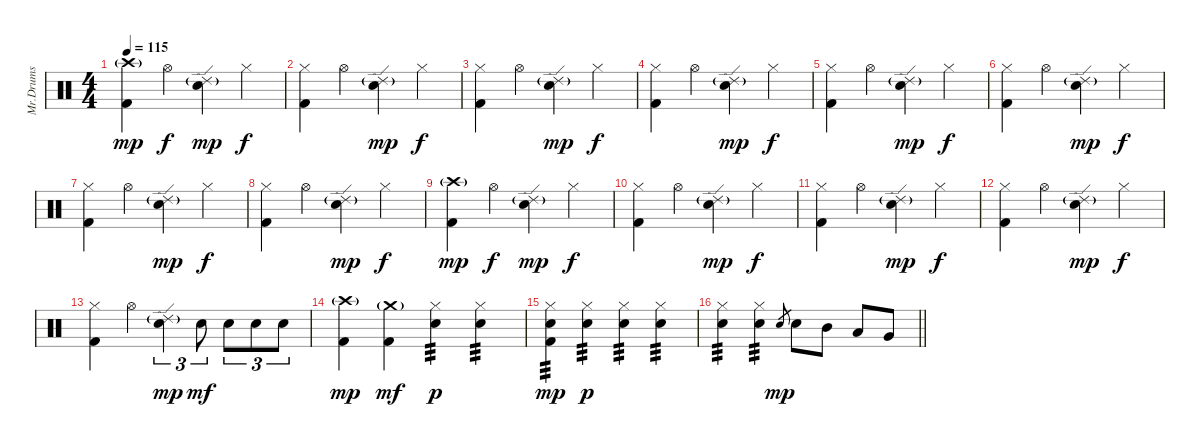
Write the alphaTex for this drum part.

\track ("Mr.Drums" "Mr.Drums") {instrument percussion}
\staff {score}
\articulation defaults
\ts (4 4)
\tempo 115
\clef neutral
\ks c
("Crash high (hit)"{g} "Kick (hit) 2").4{dy mp} "Hi-Hat (open)".4{dy f} ("Ride (edge) 2"{g} "Electric Snare (hit)").4{dy mp} "Hi-Hat (closed)".4{dy f} |
("Hi-Hat (closed)" "Kick (hit) 2").4 "Hi-Hat (open)".4 ("Ride (edge) 2"{g} "Electric Snare (hit)").4{dy mp} "Hi-Hat (closed)".4{dy f} |
("Hi-Hat (closed)" "Kick (hit) 2").4 "Hi-Hat (open)".4 ("Ride (edge) 2"{g} "Electric Snare (hit)").4{dy mp} "Hi-Hat (closed)".4{dy f} |
("Hi-Hat (closed)" "Kick (hit) 2").4 "Hi-Hat (open)".4 ("Ride (edge) 2"{g} "Electric Snare (hit)").4{dy mp} "Hi-Hat (closed)".4{dy f} |
("Hi-Hat (closed)" "Kick (hit) 2").4 "Hi-Hat (open)".4 ("Ride (edge) 2"{g} "Electric Snare (hit)").4{dy mp} "Hi-Hat (closed)".4{dy f} |
("Hi-Hat (closed)" "Kick (hit) 2").4 "Hi-Hat (open)".4 ("Ride (edge) 2"{g} "Electric Snare (hit)").4{dy mp} "Hi-Hat (closed)".4{dy f} |
("Hi-Hat (closed)" "Kick (hit) 2").4 "Hi-Hat (open)".4 ("Ride (edge) 2"{g} "Electric Snare (hit)").4{dy mp} "Hi-Hat (closed)".4{dy f} |
("Hi-Hat (closed)" "Kick (hit) 2").4 "Hi-Hat (open)".4 ("Ride (edge) 2"{g} "Electric Snare (hit)").4{dy mp} "Hi-Hat (closed)".4{dy f} |
("Crash high (hit)"{g} "Kick (hit) 2").4{dy mp} "Hi-Hat (open)".4{dy f} ("Ride (edge) 2"{g} "Electric Snare (hit)").4{dy mp} "Hi-Hat (closed)".4{dy f} |
("Hi-Hat (closed)" "Kick (hit) 2").4 "Hi-Hat (open)".4 ("Ride (edge) 2"{g} "Electric Snare (hit)").4{dy mp} "Hi-Hat (closed)".4{dy f} |
("Hi-Hat (closed)" "Kick (hit) 2").4 "Hi-Hat (open)".4 ("Ride (edge) 2"{g} "Electric Snare (hit)").4{dy mp} "Hi-Hat (closed)".4{dy f} |
("Hi-Hat (closed)" "Kick (hit) 2").4 "Hi-Hat (open)".4 ("Ride (edge) 2"{g} "Electric Snare (hit)").4{dy mp} "Hi-Hat (closed)".4{dy f} |
("Hi-Hat (closed)" "Kick (hit) 2").4 "Hi-Hat (open)".4 ("Ride (edge) 2"{g} "Electric Snare (hit)").4{tu (3 2) dy mp} "Electric Snare (hit)".8{tu (3 2) dy mf} "Electric Snare (hit)".8{tu (3 2)} "Electric Snare (hit)".8{tu (3 2)} "Electric Snare (hit)".8{tu (3 2)} |
("Crash high (hit)"{g} "Kick (hit) 2").4{dy mp} ("Crash medium (hit)"{g} "Kick (hit) 2").4{dy mf} ("Hi-Hat (closed)" "Electric Snare (hit)").4{tp 3 dy p} ("Hi-Hat (closed)" "Electric Snare (hit)").4{tp 3} |
("Hi-Hat (closed)" "Electric Snare (hit)" "Kick (hit) 2").4{tp 3 dy mp} ("Hi-Hat (closed)" "Electric Snare (hit)").4{tp 3 dy p} ("Hi-Hat (closed)" "Electric Snare (hit)").4{tp 3} ("Hi-Hat (closed)" "Electric Snare (hit)").4{tp 3} |
\barLineRight lightlight
("Hi-Hat (closed)" "Electric Snare (hit)").4{tp 3} ("Hi-Hat (closed)" "Electric Snare (hit)").4{tp 3} "Electric Snare (hit)".8{gr dy mp} "Electric Snare (hit)".8 "Mid Tom (hit)".8 "Low Tom (hit)".8 "Very Low Tom (hit)".8
